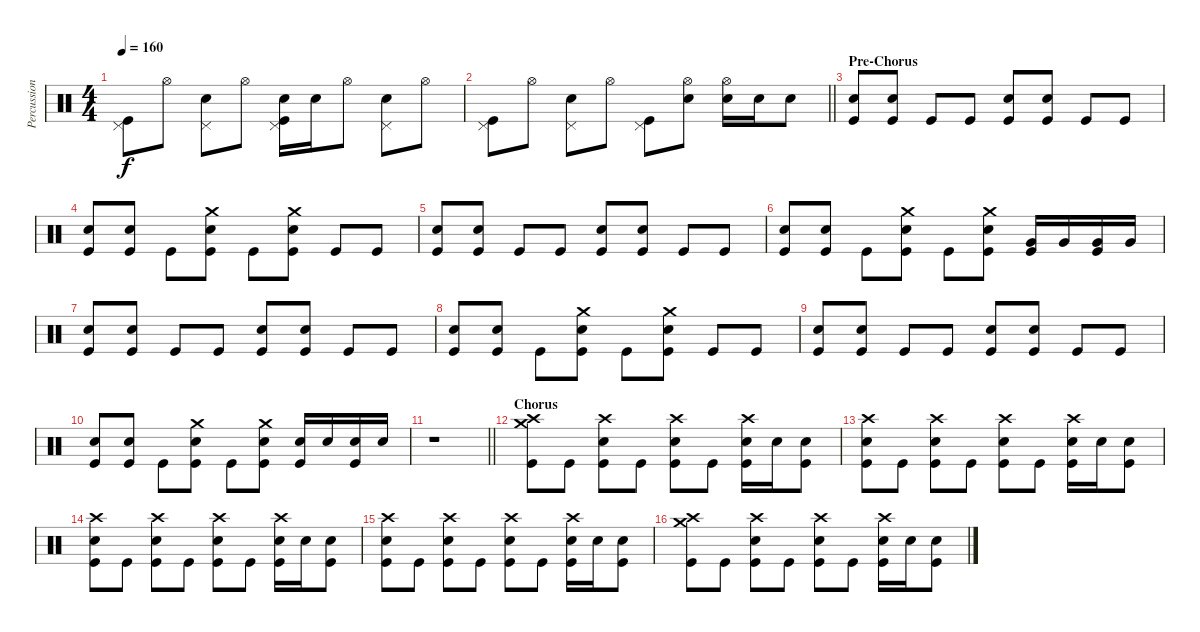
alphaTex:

\track ("Percussion" "Percussion") {instrument percussion}
\staff {score}
\articulation defaults
\ts (4 4)
\tempo 160
\clef neutral
\ks c
("Pedal Hi-Hat (hit)" "Kick (hit)").8{dy f} "Hi-Hat (open)".8 ("Pedal Hi-Hat (hit)" "Electric Snare (hit)").8 "Hi-Hat (open)".8 ("Pedal Hi-Hat (hit)" "Electric Snare (hit)" "Kick (hit)").16 "Electric Snare (hit)".16 "Hi-Hat (open)".8 ("Pedal Hi-Hat (hit)" "Electric Snare (hit)").8 "Hi-Hat (open)".8 |
\barLineRight lightlight
("Pedal Hi-Hat (hit)" "Kick (hit)").8 "Hi-Hat (open)".8 ("Pedal Hi-Hat (hit)" "Electric Snare (hit)").8 "Hi-Hat (open)".8 ("Pedal Hi-Hat (hit)" "Kick (hit)").8 ("Hi-Hat (open)" "Electric Snare (hit)").8 ("Hi-Hat (open)" "Electric Snare (hit)").16 "Electric Snare (hit)".16 "Electric Snare (hit)".8 |
\section ("" "Pre-Chorus")
("Electric Snare (hit)" "Kick (hit)").8 ("Electric Snare (hit)" "Kick (hit)").8 "Kick (hit)".8 "Kick (hit)".8 ("Electric Snare (hit)" "Kick (hit)").8 ("Electric Snare (hit)" "Kick (hit)").8 "Kick (hit)".8 "Kick (hit)".8 |
("Electric Snare (hit)" "Kick (hit)").8 ("Electric Snare (hit)" "Kick (hit)").8 "Kick (hit)".8 ("Crash medium (hit)" "Electric Snare (hit)" "Kick (hit)").8 "Kick (hit)".8 ("Crash medium (hit)" "Electric Snare (hit)" "Kick (hit)").8 "Kick (hit)".8 "Kick (hit)".8 |
("Electric Snare (hit)" "Kick (hit)").8 ("Electric Snare (hit)" "Kick (hit)").8 "Kick (hit)".8 "Kick (hit)".8 ("Electric Snare (hit)" "Kick (hit)").8 ("Electric Snare (hit)" "Kick (hit)").8 "Kick (hit)".8 "Kick (hit)".8 |
("Electric Snare (hit)" "Kick (hit)").8 ("Electric Snare (hit)" "Kick (hit)").8 "Kick (hit)".8 ("Crash medium (hit)" "Electric Snare (hit)" "Kick (hit)").8 "Kick (hit)".8 ("Crash medium (hit)" "Electric Snare (hit)" "Kick (hit)").8 ("Very Low Tom (hit)" "Kick (hit)").16 "Very Low Tom (hit)".16 ("Very Low Tom (hit)" "Kick (hit)").16 "Very Low Tom (hit)".16 |
("Electric Snare (hit)" "Kick (hit)").8 ("Electric Snare (hit)" "Kick (hit)").8 "Kick (hit)".8 "Kick (hit)".8 ("Electric Snare (hit)" "Kick (hit)").8 ("Electric Snare (hit)" "Kick (hit)").8 "Kick (hit)".8 "Kick (hit)".8 |
("Electric Snare (hit)" "Kick (hit)").8 ("Electric Snare (hit)" "Kick (hit)").8 "Kick (hit)".8 ("Crash medium (hit)" "Electric Snare (hit)" "Kick (hit)").8 "Kick (hit)".8 ("Crash medium (hit)" "Electric Snare (hit)" "Kick (hit)").8 "Kick (hit)".8 "Kick (hit)".8 |
("Electric Snare (hit)" "Kick (hit)").8 ("Electric Snare (hit)" "Kick (hit)").8 "Kick (hit)".8 "Kick (hit)".8 ("Electric Snare (hit)" "Kick (hit)").8 ("Electric Snare (hit)" "Kick (hit)").8 "Kick (hit)".8 "Kick (hit)".8 |
("Electric Snare (hit)" "Kick (hit)").8 ("Electric Snare (hit)" "Kick (hit)").8 "Kick (hit)".8 ("Crash medium (hit)" "Electric Snare (hit)" "Kick (hit)").8 "Kick (hit)".8 ("Crash medium (hit)" "Electric Snare (hit)" "Kick (hit)").8 ("Electric Snare (hit)" "Kick (hit)").16 "Electric Snare (hit)".16 ("Electric Snare (hit)" "Kick (hit)").16 "Electric Snare (hit)".16 |
\barLineRight lightlight
r.1 |
\section ("" "Chorus")
("Crash high (hit)" "Crash medium (hit)" "Kick (hit)").8 "Kick (hit)".8 ("Crash high (hit)" "Electric Snare (hit)" "Kick (hit)").8 "Kick (hit)".8 ("Crash high (hit)" "Electric Snare (hit)" "Kick (hit)").8 "Kick (hit)".8 ("Crash high (hit)" "Electric Snare (hit)" "Kick (hit)").16 "Electric Snare (hit)".16 ("Electric Snare (hit)" "Kick (hit)").8 |
("Crash high (hit)" "Electric Snare (hit)" "Kick (hit)").8 "Kick (hit)".8 ("Crash high (hit)" "Electric Snare (hit)" "Kick (hit)").8 "Kick (hit)".8 ("Crash high (hit)" "Electric Snare (hit)" "Kick (hit)").8 "Kick (hit)".8 ("Crash high (hit)" "Electric Snare (hit)" "Kick (hit)").16 "Electric Snare (hit)".16 ("Electric Snare (hit)" "Kick (hit)").8 |
("Crash high (hit)" "Electric Snare (hit)" "Kick (hit)").8 "Kick (hit)".8 ("Crash high (hit)" "Electric Snare (hit)" "Kick (hit)").8 "Kick (hit)".8 ("Crash high (hit)" "Electric Snare (hit)" "Kick (hit)").8 "Kick (hit)".8 ("Crash high (hit)" "Electric Snare (hit)" "Kick (hit)").16 "Electric Snare (hit)".16 ("Electric Snare (hit)" "Kick (hit)").8 |
("Crash high (hit)" "Electric Snare (hit)" "Kick (hit)").8 "Kick (hit)".8 ("Crash high (hit)" "Electric Snare (hit)" "Kick (hit)").8 "Kick (hit)".8 ("Crash high (hit)" "Electric Snare (hit)" "Kick (hit)").8 "Kick (hit)".8 ("Crash high (hit)" "Electric Snare (hit)" "Kick (hit)").16 "Electric Snare (hit)".16 ("Electric Snare (hit)" "Kick (hit)").8 |
("Crash high (hit)" "Crash medium (hit)" "Kick (hit)").8 "Kick (hit)".8 ("Crash high (hit)" "Electric Snare (hit)" "Kick (hit)").8 "Kick (hit)".8 ("Crash high (hit)" "Electric Snare (hit)" "Kick (hit)").8 "Kick (hit)".8 ("Crash high (hit)" "Electric Snare (hit)" "Kick (hit)").16 "Electric Snare (hit)".16 ("Electric Snare (hit)" "Kick (hit)").8
